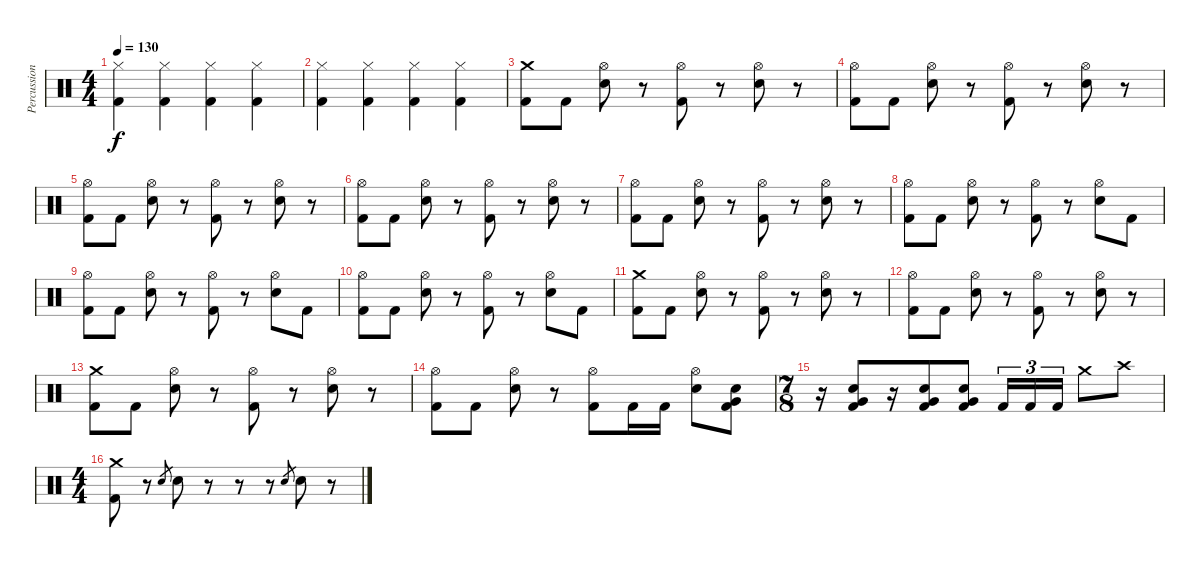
\track ("Percussions" "Percussion") {instrument percussion}
\staff {score}
\articulation defaults
\ts (4 4)
\tempo 130
\clef neutral
\ks c
("Hi-Hat (closed)" "Kick (hit) 2").4{dy f} ("Hi-Hat (closed)" "Kick (hit) 2").4 ("Hi-Hat (closed)" "Kick (hit) 2").4 ("Hi-Hat (closed)" "Kick (hit) 2").4 |
("Hi-Hat (closed)" "Kick (hit) 2").4 ("Hi-Hat (closed)" "Kick (hit) 2").4 ("Hi-Hat (closed)" "Kick (hit) 2").4 ("Hi-Hat (closed)" "Kick (hit) 2").4 |
("Crash medium (hit)" "Kick (hit) 2").8{volume 14} "Kick (hit) 2".8 ("Hi-Hat (open)" "Electric Snare (hit)").8 r.8 ("Hi-Hat (open)" "Kick (hit) 2").8 r.8 ("Hi-Hat (open)" "Electric Snare (hit)").8 r.8 |
("Hi-Hat (open)" "Kick (hit) 2").8 "Kick (hit) 2".8 ("Hi-Hat (open)" "Electric Snare (hit)").8 r.8 ("Hi-Hat (open)" "Kick (hit) 2").8 r.8 ("Hi-Hat (open)" "Electric Snare (hit)").8 r.8 |
("Hi-Hat (open)" "Kick (hit) 2").8 "Kick (hit) 2".8 ("Hi-Hat (open)" "Electric Snare (hit)").8 r.8 ("Hi-Hat (open)" "Kick (hit) 2").8 r.8 ("Hi-Hat (open)" "Electric Snare (hit)").8 r.8 |
("Hi-Hat (open)" "Kick (hit) 2").8 "Kick (hit) 2".8 ("Hi-Hat (open)" "Electric Snare (hit)").8 r.8 ("Hi-Hat (open)" "Kick (hit) 2").8 r.8 ("Hi-Hat (open)" "Electric Snare (hit)").8 r.8 |
("Hi-Hat (open)" "Kick (hit) 2").8 "Kick (hit) 2".8 ("Hi-Hat (open)" "Electric Snare (hit)").8 r.8 ("Hi-Hat (open)" "Kick (hit) 2").8 r.8 ("Hi-Hat (open)" "Electric Snare (hit)").8 r.8 |
("Hi-Hat (open)" "Kick (hit) 2").8 "Kick (hit) 2".8 ("Hi-Hat (open)" "Electric Snare (hit)").8 r.8 ("Hi-Hat (open)" "Kick (hit) 2").8 r.8 ("Hi-Hat (open)" "Electric Snare (hit)").8 "Kick (hit) 2".8 |
("Hi-Hat (open)" "Kick (hit) 2").8 "Kick (hit) 2".8 ("Hi-Hat (open)" "Electric Snare (hit)").8 r.8 ("Hi-Hat (open)" "Kick (hit) 2").8 r.8 ("Hi-Hat (open)" "Electric Snare (hit)").8 "Kick (hit) 2".8 |
("Hi-Hat (open)" "Kick (hit) 2").8 "Kick (hit) 2".8 ("Hi-Hat (open)" "Electric Snare (hit)").8 r.8 ("Hi-Hat (open)" "Kick (hit) 2").8 r.8 ("Hi-Hat (open)" "Electric Snare (hit)").8 "Kick (hit) 2".8 |
("Crash medium (hit)" "Kick (hit) 2").8 "Kick (hit) 2".8 ("Hi-Hat (open)" "Electric Snare (hit)").8 r.8 ("Hi-Hat (open)" "Kick (hit) 2").8 r.8 ("Hi-Hat (open)" "Electric Snare (hit)").8 r.8 |
("Hi-Hat (open)" "Kick (hit) 2").8 "Kick (hit) 2".8 ("Hi-Hat (open)" "Electric Snare (hit)").8 r.8 ("Hi-Hat (open)" "Kick (hit) 2").8 r.8 ("Hi-Hat (open)" "Electric Snare (hit)").8 r.8 |
("Crash medium (hit)" "Kick (hit) 2").8 "Kick (hit) 2".8 ("Hi-Hat (open)" "Electric Snare (hit)").8 r.8 ("Hi-Hat (open)" "Kick (hit) 2").8 r.8 ("Hi-Hat (open)" "Electric Snare (hit)").8 r.8 |
("Hi-Hat (open)" "Kick (hit) 2").8 "Kick (hit) 2".8 ("Hi-Hat (open)" "Electric Snare (hit)").8 r.8 ("Hi-Hat (open)" "Kick (hit) 2").8 "Kick (hit) 2".16 "Kick (hit) 2".16 ("Hi-Hat (open)" "Electric Snare (hit)").8 ("Electric Snare (hit)" "Very Low Tom (hit)" "Kick (hit) 2").8 |
\ts (7 8)
r.16 ("Electric Snare (hit)" "Very Low Tom (hit)" "Kick (hit) 2").8 r.16 ("Electric Snare (hit)" "Very Low Tom (hit)" "Kick (hit) 2").8 ("Electric Snare (hit)" "Very Low Tom (hit)" "Kick (hit) 2").8 "Kick (hit) 2".16{tu (3 2)} "Kick (hit) 2".16{tu (3 2)} "Kick (hit) 2".16{tu (3 2)} "Crash medium (hit)".8 "Crash high (hit)".8 |
\ts (4 4)
("Crash medium (hit)" "Kick (hit) 2").8{volume 14} r.8 "Electric Snare (hit)".8{gr} "Electric Snare (hit)".8 r.8 r.8 r.8 "Electric Snare (hit)".8{gr} "Electric Snare (hit)".8 r.8
